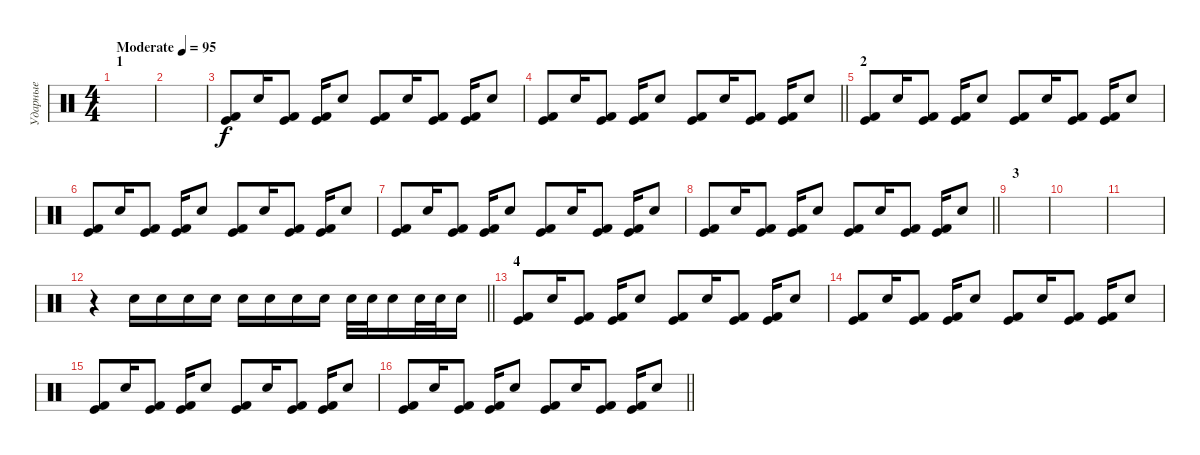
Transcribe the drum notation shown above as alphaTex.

\track ("Ударные" "Ударные") {instrument percussion}
\staff {score}
\articulation defaults
\ts (4 4)
\section ("" "1")
\tempo (95 "Moderate")
\clef neutral
\ks c
|
|
("Kick (hit) 2" "Kick (hit)").8 "Electric Snare (hit)".16 ("Kick (hit) 2" "Kick (hit)").8 ("Kick (hit) 2" "Kick (hit)").16 "Electric Snare (hit)".8 ("Kick (hit) 2" "Kick (hit)").8 "Electric Snare (hit)".16 ("Kick (hit) 2" "Kick (hit)").8 ("Kick (hit) 2" "Kick (hit)").16 "Electric Snare (hit)".8 |
\barLineRight lightlight
("Kick (hit) 2" "Kick (hit)").8 "Electric Snare (hit)".16 ("Kick (hit) 2" "Kick (hit)").8 ("Kick (hit) 2" "Kick (hit)").16 "Electric Snare (hit)".8 ("Kick (hit) 2" "Kick (hit)").8 "Electric Snare (hit)".16 ("Kick (hit) 2" "Kick (hit)").8 ("Kick (hit) 2" "Kick (hit)").16 "Electric Snare (hit)".8 |
\section ("" "2")
("Kick (hit) 2" "Kick (hit)").8 "Electric Snare (hit)".16 ("Kick (hit) 2" "Kick (hit)").8 ("Kick (hit) 2" "Kick (hit)").16 "Electric Snare (hit)".8 ("Kick (hit) 2" "Kick (hit)").8 "Electric Snare (hit)".16 ("Kick (hit) 2" "Kick (hit)").8 ("Kick (hit) 2" "Kick (hit)").16 "Electric Snare (hit)".8 |
("Kick (hit) 2" "Kick (hit)").8 "Electric Snare (hit)".16 ("Kick (hit) 2" "Kick (hit)").8 ("Kick (hit) 2" "Kick (hit)").16 "Electric Snare (hit)".8 ("Kick (hit) 2" "Kick (hit)").8 "Electric Snare (hit)".16 ("Kick (hit) 2" "Kick (hit)").8 ("Kick (hit) 2" "Kick (hit)").16 "Electric Snare (hit)".8 |
("Kick (hit) 2" "Kick (hit)").8 "Electric Snare (hit)".16 ("Kick (hit) 2" "Kick (hit)").8 ("Kick (hit) 2" "Kick (hit)").16 "Electric Snare (hit)".8 ("Kick (hit) 2" "Kick (hit)").8 "Electric Snare (hit)".16 ("Kick (hit) 2" "Kick (hit)").8 ("Kick (hit) 2" "Kick (hit)").16 "Electric Snare (hit)".8 |
\barLineRight lightlight
("Kick (hit) 2" "Kick (hit)").8 "Electric Snare (hit)".16 ("Kick (hit) 2" "Kick (hit)").8 ("Kick (hit) 2" "Kick (hit)").16 "Electric Snare (hit)".8 ("Kick (hit) 2" "Kick (hit)").8 "Electric Snare (hit)".16 ("Kick (hit) 2" "Kick (hit)").8 ("Kick (hit) 2" "Kick (hit)").16 "Electric Snare (hit)".8 |
\section ("" "3")
|
|
|
\barLineRight lightlight
r.4 "Electric Snare (hit)".16 "Electric Snare (hit)".16 "Electric Snare (hit)".16 "Electric Snare (hit)".16 "Electric Snare (hit)".16 "Electric Snare (hit)".16 "Electric Snare (hit)".16 "Electric Snare (hit)".16 "Electric Snare (hit)".32 "Electric Snare (hit)".32 "Electric Snare (hit)".16 "Electric Snare (hit)".32 "Electric Snare (hit)".32 "Electric Snare (hit)".16 |
\section ("" "4")
("Kick (hit) 2" "Kick (hit)").8 "Electric Snare (hit)".16 ("Kick (hit) 2" "Kick (hit)").8 ("Kick (hit) 2" "Kick (hit)").16 "Electric Snare (hit)".8 ("Kick (hit) 2" "Kick (hit)").8 "Electric Snare (hit)".16 ("Kick (hit) 2" "Kick (hit)").8 ("Kick (hit) 2" "Kick (hit)").16 "Electric Snare (hit)".8 |
("Kick (hit) 2" "Kick (hit)").8 "Electric Snare (hit)".16 ("Kick (hit) 2" "Kick (hit)").8 ("Kick (hit) 2" "Kick (hit)").16 "Electric Snare (hit)".8 ("Kick (hit) 2" "Kick (hit)").8 "Electric Snare (hit)".16 ("Kick (hit) 2" "Kick (hit)").8 ("Kick (hit) 2" "Kick (hit)").16 "Electric Snare (hit)".8 |
("Kick (hit) 2" "Kick (hit)").8 "Electric Snare (hit)".16 ("Kick (hit) 2" "Kick (hit)").8 ("Kick (hit) 2" "Kick (hit)").16 "Electric Snare (hit)".8 ("Kick (hit) 2" "Kick (hit)").8 "Electric Snare (hit)".16 ("Kick (hit) 2" "Kick (hit)").8 ("Kick (hit) 2" "Kick (hit)").16 "Electric Snare (hit)".8 |
\barLineRight lightlight
("Kick (hit) 2" "Kick (hit)").8 "Electric Snare (hit)".16 ("Kick (hit) 2" "Kick (hit)").8 ("Kick (hit) 2" "Kick (hit)").16 "Electric Snare (hit)".8 ("Kick (hit) 2" "Kick (hit)").8 "Electric Snare (hit)".16 ("Kick (hit) 2" "Kick (hit)").8 ("Kick (hit) 2" "Kick (hit)").16 "Electric Snare (hit)".8
